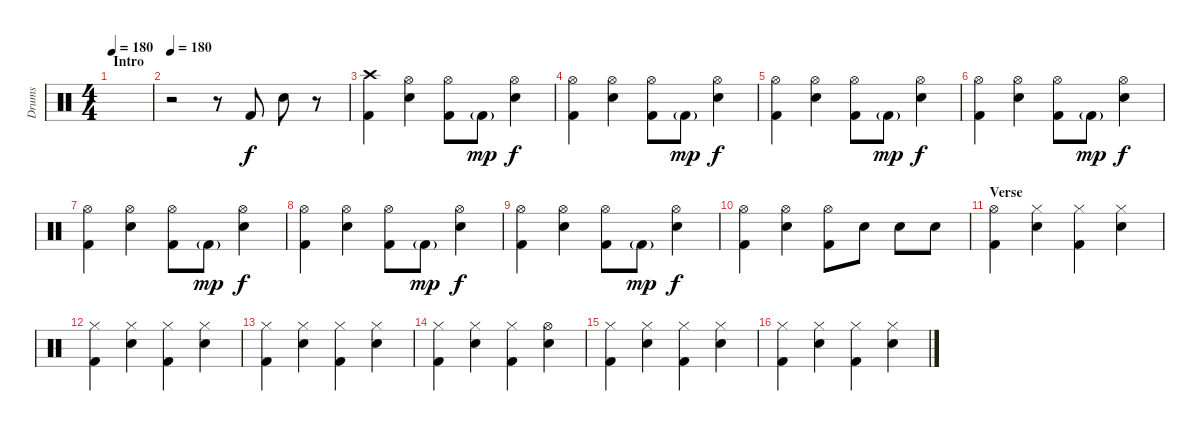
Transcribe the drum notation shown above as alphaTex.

\track ("Drums" "Drums") {instrument percussion}
\staff {score}
\articulation defaults
\ts (4 4)
\section ("" "Intro")
\tempo 180
\tempo 160
\tempo 180
\clef neutral
\ks c
|
\tempo 180
r.2 r.8 "Kick (hit) 2".8 "Electric Snare (hit)".8 r.8 |
("Crash high (hit)" "Kick (hit) 2").4 ("Hi-Hat (open)" "Electric Snare (hit)").4 ("Hi-Hat (open)" "Kick (hit) 2").8 "Kick (hit) 2"{g}.8{dy mp} ("Hi-Hat (open)" "Electric Snare (hit)").4{dy f} |
("Hi-Hat (open)" "Kick (hit) 2").4 ("Hi-Hat (open)" "Electric Snare (hit)").4 ("Hi-Hat (open)" "Kick (hit) 2").8 "Kick (hit) 2"{g}.8{dy mp} ("Hi-Hat (open)" "Electric Snare (hit)").4{dy f} |
("Hi-Hat (open)" "Kick (hit) 2").4 ("Hi-Hat (open)" "Electric Snare (hit)").4 ("Hi-Hat (open)" "Kick (hit) 2").8 "Kick (hit) 2"{g}.8{dy mp} ("Hi-Hat (open)" "Electric Snare (hit)").4{dy f} |
("Hi-Hat (open)" "Kick (hit) 2").4 ("Hi-Hat (open)" "Electric Snare (hit)").4 ("Hi-Hat (open)" "Kick (hit) 2").8 "Kick (hit) 2"{g}.8{dy mp} ("Hi-Hat (open)" "Electric Snare (hit)").4{dy f} |
("Hi-Hat (open)" "Kick (hit) 2").4 ("Hi-Hat (open)" "Electric Snare (hit)").4 ("Hi-Hat (open)" "Kick (hit) 2").8 "Kick (hit) 2"{g}.8{dy mp} ("Hi-Hat (open)" "Electric Snare (hit)").4{dy f} |
("Hi-Hat (open)" "Kick (hit) 2").4 ("Hi-Hat (open)" "Electric Snare (hit)").4 ("Hi-Hat (open)" "Kick (hit) 2").8 "Kick (hit) 2"{g}.8{dy mp} ("Hi-Hat (open)" "Electric Snare (hit)").4{dy f} |
("Hi-Hat (open)" "Kick (hit) 2").4 ("Hi-Hat (open)" "Electric Snare (hit)").4 ("Hi-Hat (open)" "Kick (hit) 2").8 "Kick (hit) 2"{g}.8{dy mp} ("Hi-Hat (open)" "Electric Snare (hit)").4{dy f} |
("Hi-Hat (open)" "Kick (hit) 2").4 ("Hi-Hat (open)" "Electric Snare (hit)").4 ("Hi-Hat (open)" "Kick (hit) 2").8 "Electric Snare (hit)".8 "Electric Snare (hit)".8 "Electric Snare (hit)".8 |
\section ("" "Verse")
("Hi-Hat (open)" "Kick (hit) 2").4 ("Hi-Hat (closed)" "Electric Snare (hit)").4 ("Hi-Hat (closed)" "Kick (hit) 2").4 ("Hi-Hat (closed)" "Electric Snare (hit)").4 |
("Hi-Hat (closed)" "Kick (hit) 2").4 ("Hi-Hat (closed)" "Electric Snare (hit)").4 ("Hi-Hat (closed)" "Kick (hit) 2").4 ("Hi-Hat (closed)" "Electric Snare (hit)").4 |
("Hi-Hat (closed)" "Kick (hit) 2").4 ("Hi-Hat (closed)" "Electric Snare (hit)").4 ("Hi-Hat (closed)" "Kick (hit) 2").4 ("Hi-Hat (closed)" "Electric Snare (hit)").4 |
("Hi-Hat (closed)" "Kick (hit) 2").4 ("Hi-Hat (closed)" "Electric Snare (hit)").4 ("Hi-Hat (closed)" "Kick (hit) 2").4 ("Hi-Hat (open)" "Electric Snare (hit)").4 |
("Hi-Hat (closed)" "Kick (hit) 2").4 ("Hi-Hat (closed)" "Electric Snare (hit)").4 ("Hi-Hat (closed)" "Kick (hit) 2").4 ("Hi-Hat (closed)" "Electric Snare (hit)").4 |
("Hi-Hat (closed)" "Kick (hit) 2").4 ("Hi-Hat (closed)" "Electric Snare (hit)").4 ("Hi-Hat (closed)" "Kick (hit) 2").4 ("Hi-Hat (closed)" "Electric Snare (hit)").4
